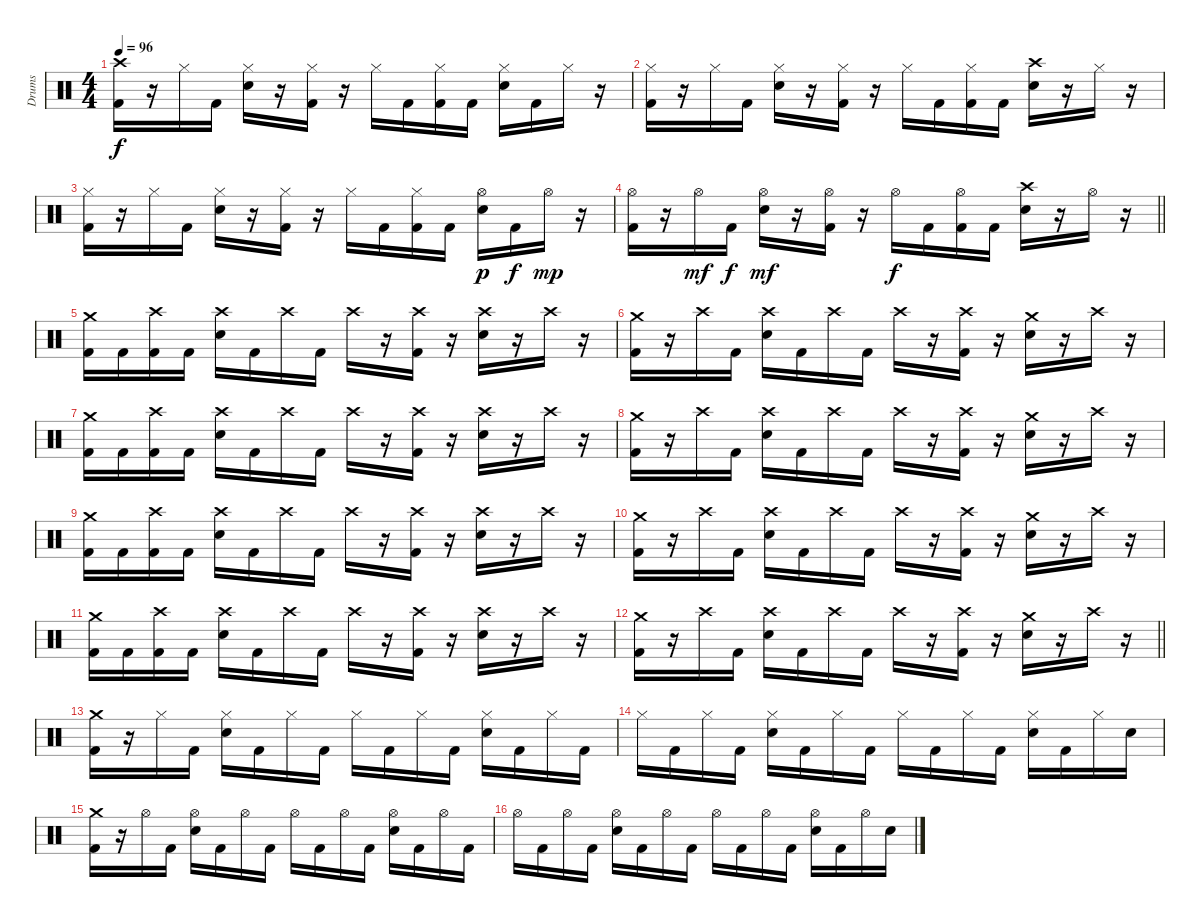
\track ("Drums" "Drums") {instrument percussion}
\staff {score}
\articulation defaults
\ts (4 4)
\tempo 96
\clef neutral
\ks c
("Crash high (hit)" "Kick (hit) 2").16{dy f} r.16 "Hi-Hat (closed)".16 "Kick (hit) 2".16 ("Hi-Hat (closed)" "Electric Snare (hit)").16 r.16 ("Hi-Hat (closed)" "Kick (hit) 2").16 r.16 "Hi-Hat (closed)".16 "Kick (hit) 2".16 ("Hi-Hat (closed)" "Kick (hit) 2").16 "Kick (hit) 2".16 ("Hi-Hat (closed)" "Electric Snare (hit)").16 "Kick (hit) 2".16 "Hi-Hat (closed)".16 r.16 |
("Hi-Hat (closed)" "Kick (hit) 2").16 r.16 "Hi-Hat (closed)".16 "Kick (hit) 2".16 ("Hi-Hat (closed)" "Electric Snare (hit)").16 r.16 ("Hi-Hat (closed)" "Kick (hit) 2").16 r.16 "Hi-Hat (closed)".16 "Kick (hit) 2".16 ("Hi-Hat (closed)" "Kick (hit) 2").16 "Kick (hit) 2".16 ("Crash high (hit)" "Electric Snare (hit)").16 r.16 "Hi-Hat (closed)".16 r.16 |
("Hi-Hat (closed)" "Kick (hit) 2").16 r.16 "Hi-Hat (closed)".16 "Kick (hit) 2".16 ("Hi-Hat (closed)" "Electric Snare (hit)").16 r.16 ("Hi-Hat (closed)" "Kick (hit) 2").16 r.16 "Hi-Hat (closed)".16 "Kick (hit) 2".16 ("Hi-Hat (closed)" "Kick (hit) 2").16 "Kick (hit) 2".16 ("Hi-Hat (open)" "Electric Snare (hit)").16{dy p} "Kick (hit) 2".16{dy f} "Hi-Hat (open)".16{dy mp} r.16 |
\barLineRight lightlight
("Hi-Hat (open)" "Kick (hit) 2").16 r.16 "Hi-Hat (open)".16{dy mf} "Kick (hit) 2".16{dy f} ("Hi-Hat (open)" "Electric Snare (hit)").16{dy mf} r.16 ("Hi-Hat (open)" "Kick (hit) 2").16 r.16 "Hi-Hat (open)".16{dy f} "Kick (hit) 2".16 ("Hi-Hat (open)" "Kick (hit) 2").16 "Kick (hit) 2".16 ("Crash high (hit)" "Electric Snare (hit)").16 r.16 "Hi-Hat (open)".16 r.16 |
("Kick (hit) 2" "Crash medium (hit)").16 "Kick (hit) 2".16 ("Kick (hit) 2" "Crash high (hit)").16 "Kick (hit) 2".16 ("Electric Snare (hit)" "Crash high (hit)").16 "Kick (hit) 2".16 "Crash high (hit)".16 "Kick (hit) 2".16 "Crash high (hit)".16 r.16 ("Kick (hit) 2" "Crash high (hit)").16 r.16 ("Electric Snare (hit)" "Crash high (hit)").16 r.16 "Crash high (hit)".16 r.16 |
("Kick (hit) 2" "Crash medium (hit)").16 r.16 "Crash high (hit)".16 "Kick (hit) 2".16 ("Electric Snare (hit)" "Crash high (hit)").16 "Kick (hit) 2".16 "Crash high (hit)".16 "Kick (hit) 2".16 "Crash high (hit)".16 r.16 ("Kick (hit) 2" "Crash high (hit)").16 r.16 ("Electric Snare (hit)" "Crash medium (hit)").16 r.16 "Crash high (hit)".16 r.16 |
("Kick (hit) 2" "Crash medium (hit)").16 "Kick (hit) 2".16 ("Kick (hit) 2" "Crash high (hit)").16 "Kick (hit) 2".16 ("Electric Snare (hit)" "Crash high (hit)").16 "Kick (hit) 2".16 "Crash high (hit)".16 "Kick (hit) 2".16 "Crash high (hit)".16 r.16 ("Kick (hit) 2" "Crash high (hit)").16 r.16 ("Electric Snare (hit)" "Crash high (hit)").16 r.16 "Crash high (hit)".16 r.16 |
("Kick (hit) 2" "Crash medium (hit)").16 r.16 "Crash high (hit)".16 "Kick (hit) 2".16 ("Electric Snare (hit)" "Crash high (hit)").16 "Kick (hit) 2".16 "Crash high (hit)".16 "Kick (hit) 2".16 "Crash high (hit)".16 r.16 ("Kick (hit) 2" "Crash high (hit)").16 r.16 ("Electric Snare (hit)" "Crash medium (hit)").16 r.16 "Crash high (hit)".16 r.16 |
("Kick (hit) 2" "Crash medium (hit)").16 "Kick (hit) 2".16 ("Kick (hit) 2" "Crash high (hit)").16 "Kick (hit) 2".16 ("Electric Snare (hit)" "Crash high (hit)").16 "Kick (hit) 2".16 "Crash high (hit)".16 "Kick (hit) 2".16 "Crash high (hit)".16 r.16 ("Kick (hit) 2" "Crash high (hit)").16 r.16 ("Electric Snare (hit)" "Crash high (hit)").16 r.16 "Crash high (hit)".16 r.16 |
("Kick (hit) 2" "Crash medium (hit)").16 r.16 "Crash high (hit)".16 "Kick (hit) 2".16 ("Electric Snare (hit)" "Crash high (hit)").16 "Kick (hit) 2".16 "Crash high (hit)".16 "Kick (hit) 2".16 "Crash high (hit)".16 r.16 ("Kick (hit) 2" "Crash high (hit)").16 r.16 ("Electric Snare (hit)" "Crash medium (hit)").16 r.16 "Crash high (hit)".16 r.16 |
("Kick (hit) 2" "Crash medium (hit)").16 "Kick (hit) 2".16 ("Kick (hit) 2" "Crash high (hit)").16 "Kick (hit) 2".16 ("Electric Snare (hit)" "Crash high (hit)").16 "Kick (hit) 2".16 "Crash high (hit)".16 "Kick (hit) 2".16 "Crash high (hit)".16 r.16 ("Kick (hit) 2" "Crash high (hit)").16 r.16 ("Electric Snare (hit)" "Crash high (hit)").16 r.16 "Crash high (hit)".16 r.16 |
\barLineRight lightlight
("Kick (hit) 2" "Crash medium (hit)").16 r.16 "Crash high (hit)".16 "Kick (hit) 2".16 ("Electric Snare (hit)" "Crash high (hit)").16 "Kick (hit) 2".16 "Crash high (hit)".16 "Kick (hit) 2".16 "Crash high (hit)".16 r.16 ("Kick (hit) 2" "Crash high (hit)").16 r.16 ("Electric Snare (hit)" "Crash medium (hit)").16 r.16 "Crash high (hit)".16 r.16 |
("Crash medium (hit)" "Kick (hit) 2").16 r.16 "Hi-Hat (closed)".16 "Kick (hit) 2".16 ("Hi-Hat (closed)" "Electric Snare (hit)").16 "Kick (hit) 2".16 "Hi-Hat (closed)".16 "Kick (hit) 2".16 "Hi-Hat (closed)".16 "Kick (hit) 2".16 "Hi-Hat (closed)".16 "Kick (hit) 2".16 ("Hi-Hat (closed)" "Electric Snare (hit)").16 "Kick (hit) 2".16 "Hi-Hat (closed)".16 "Kick (hit) 2".16 |
"Hi-Hat (closed)".16 "Kick (hit) 2".16 "Hi-Hat (closed)".16 "Kick (hit) 2".16 ("Hi-Hat (closed)" "Electric Snare (hit)").16 "Kick (hit) 2".16 "Hi-Hat (closed)".16 "Kick (hit) 2".16 "Hi-Hat (closed)".16 "Kick (hit) 2".16 "Hi-Hat (closed)".16 "Kick (hit) 2".16 ("Hi-Hat (closed)" "Electric Snare (hit)").16 "Kick (hit) 2".16 "Hi-Hat (closed)".16 "Electric Snare (hit)".16 |
("Crash medium (hit)" "Kick (hit) 2").16 r.16 "Hi-Hat (open)".16 "Kick (hit) 2".16 ("Hi-Hat (open)" "Electric Snare (hit)").16 "Kick (hit) 2".16 "Hi-Hat (open)".16 "Kick (hit) 2".16 "Hi-Hat (open)".16 "Kick (hit) 2".16 "Hi-Hat (open)".16 "Kick (hit) 2".16 ("Hi-Hat (open)" "Electric Snare (hit)").16 "Kick (hit) 2".16 "Hi-Hat (open)".16 "Kick (hit) 2".16 |
"Hi-Hat (open)".16 "Kick (hit) 2".16 "Hi-Hat (open)".16 "Kick (hit) 2".16 ("Hi-Hat (open)" "Electric Snare (hit)").16 "Kick (hit) 2".16 "Hi-Hat (open)".16 "Kick (hit) 2".16 "Hi-Hat (open)".16 "Kick (hit) 2".16 "Hi-Hat (open)".16 "Kick (hit) 2".16 ("Hi-Hat (open)" "Electric Snare (hit)").16 "Kick (hit) 2".16 "Hi-Hat (open)".16 "Electric Snare (hit)".16
